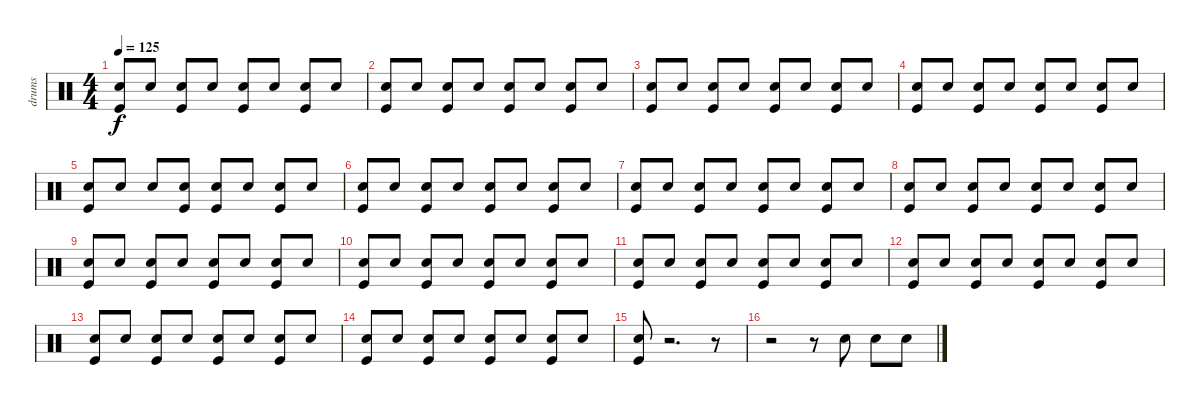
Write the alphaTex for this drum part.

\track ("drums" "drums") {instrument percussion}
\staff {score}
\articulation defaults
\ts (4 4)
\tempo 125
\clef neutral
\ks c
("Snare (hit) 2" "Kick (hit)").8{dy f} "Snare (hit) 2".8 ("Hand Clap (hit)" "Kick (hit)").8 "Snare (hit) 2".8 ("Snare (hit) 2" "Kick (hit)").8 "Snare (hit) 2".8 ("Hand Clap (hit)" "Kick (hit)").8 "Snare (hit) 2".8 |
("Snare (hit) 2" "Kick (hit)").8 "Snare (hit) 2".8 ("Hand Clap (hit)" "Kick (hit)").8 "Snare (hit) 2".8 ("Snare (hit) 2" "Kick (hit)").8 "Snare (hit) 2".8 ("Hand Clap (hit)" "Kick (hit)").8 "Snare (hit) 2".8 |
("Snare (hit) 2" "Kick (hit)").8 "Snare (hit) 2".8 ("Hand Clap (hit)" "Kick (hit)").8 "Snare (hit) 2".8 ("Snare (hit) 2" "Kick (hit)").8 "Snare (hit) 2".8 ("Hand Clap (hit)" "Kick (hit)").8 "Snare (hit) 2".8 |
("Snare (hit) 2" "Kick (hit)").8 "Snare (hit) 2".8 ("Hand Clap (hit)" "Kick (hit)").8 "Snare (hit) 2".8 ("Kick (hit)" "Hand Clap (hit)").8 "Snare (hit) 2".8 ("Hand Clap (hit)" "Kick (hit)").8 "Snare (hit) 2".8 |
("Kick (hit)" "Snare (hit) 2").8 "Snare (hit) 2".8 "Hand Clap (hit)".8 ("Kick (hit)" "Snare (hit) 2").8 ("Kick (hit)" "Snare (hit) 2").8 "Snare (hit) 2".8 ("Kick (hit)" "Hand Clap (hit)").8 "Snare (hit) 2".8 |
("Snare (hit) 2" "Kick (hit)").8 "Snare (hit) 2".8 ("Hand Clap (hit)" "Kick (hit)").8 "Snare (hit) 2".8 ("Snare (hit) 2" "Kick (hit)").8 "Snare (hit) 2".8 ("Hand Clap (hit)" "Kick (hit)").8 "Snare (hit) 2".8 |
("Kick (hit)" "Snare (hit) 2").8 "Snare (hit) 2".8 ("Kick (hit)" "Hand Clap (hit)").8 "Snare (hit) 2".8 ("Kick (hit)" "Snare (hit) 2").8 "Snare (hit) 2".8 ("Kick (hit)" "Hand Clap (hit)").8 "Snare (hit) 2".8 |
("Kick (hit)" "Snare (hit) 2").8 "Snare (hit) 2".8 ("Kick (hit)" "Hand Clap (hit)").8 "Snare (hit) 2".8 ("Kick (hit)" "Snare (hit) 2").8 "Snare (hit) 2".8 ("Kick (hit)" "Hand Clap (hit)").8 "Snare (hit) 2".8 |
("Kick (hit)" "Snare (hit) 2").8 "Snare (hit) 2".8 ("Kick (hit)" "Hand Clap (hit)").8 "Snare (hit) 2".8 ("Kick (hit)" "Snare (hit) 2").8 "Snare (hit) 2".8 ("Kick (hit)" "Hand Clap (hit)").8 "Snare (hit) 2".8 |
("Kick (hit)" "Snare (hit) 2").8 "Snare (hit) 2".8 ("Kick (hit)" "Hand Clap (hit)").8 "Snare (hit) 2".8 ("Kick (hit)" "Snare (hit) 2").8 "Snare (hit) 2".8 ("Kick (hit)" "Hand Clap (hit)").8 "Snare (hit) 2".8 |
("Kick (hit)" "Snare (hit) 2").8 "Snare (hit) 2".8 ("Kick (hit)" "Hand Clap (hit)").8 "Snare (hit) 2".8 ("Kick (hit)" "Snare (hit) 2").8 "Snare (hit) 2".8 ("Kick (hit)" "Hand Clap (hit)").8 "Snare (hit) 2".8 |
("Kick (hit)" "Snare (hit) 2").8 "Snare (hit) 2".8 ("Kick (hit)" "Hand Clap (hit)").8 "Snare (hit) 2".8 ("Kick (hit)" "Snare (hit) 2").8 "Snare (hit) 2".8 ("Kick (hit)" "Hand Clap (hit)").8 "Snare (hit) 2".8 |
("Kick (hit)" "Snare (hit) 2").8 "Snare (hit) 2".8 ("Kick (hit)" "Hand Clap (hit)").8 "Snare (hit) 2".8 ("Kick (hit)" "Snare (hit) 2").8 "Snare (hit) 2".8 ("Kick (hit)" "Hand Clap (hit)").8 "Snare (hit) 2".8 |
("Kick (hit)" "Snare (hit) 2").8 "Snare (hit) 2".8 ("Kick (hit)" "Hand Clap (hit)").8 "Snare (hit) 2".8 ("Kick (hit)" "Snare (hit) 2").8 "Snare (hit) 2".8 ("Kick (hit)" "Hand Clap (hit)").8 "Snare (hit) 2".8 |
("Kick (hit)" "Hand Clap (hit)").8 r.2{d} r.8 |
r.2 r.8 "Snare (hit) 2".8 "Snare (hit) 2".8 "Snare (hit) 2".8
